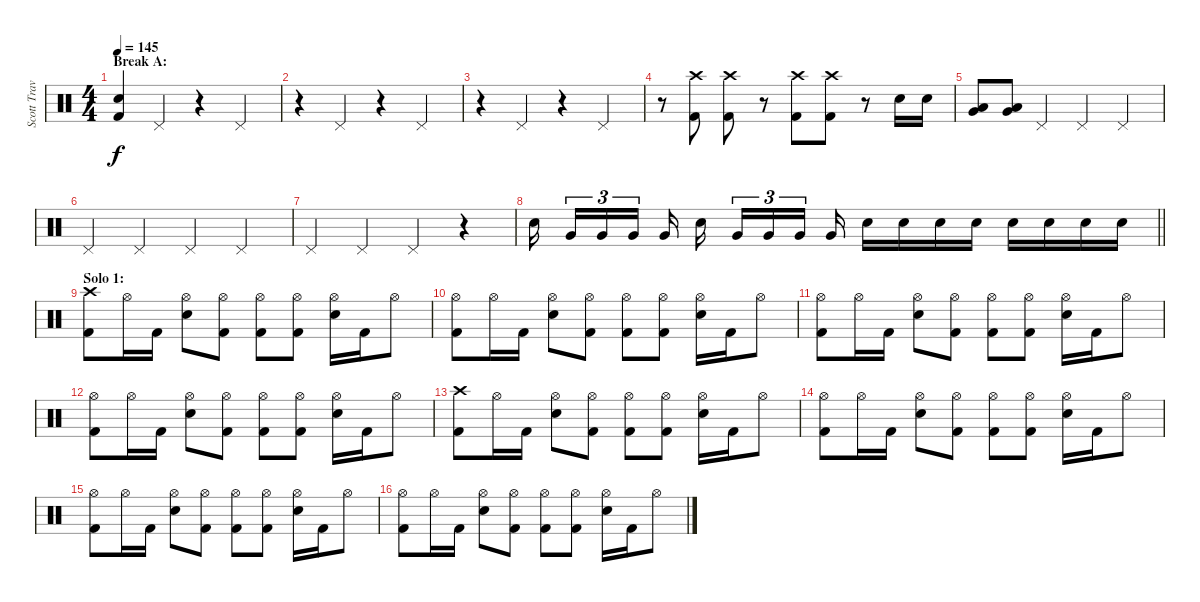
\track ("Scott Travis" "Scott Trav") {instrument percussion}
\staff {score}
\articulation defaults
\ts (4 4)
\section ("" "Break A:")
\tempo 145
\clef neutral
\ks c
("Snare (hit) 2" "Kick (hit) 2").4{dy f} "Pedal Hi-Hat (hit)".4 r.4 "Pedal Hi-Hat (hit)".4 |
r.4 "Pedal Hi-Hat (hit)".4 r.4 "Pedal Hi-Hat (hit)".4 |
r.4 "Pedal Hi-Hat (hit)".4 r.4 "Pedal Hi-Hat (hit)".4 |
r.8 ("Crash high (hit)" "Kick (hit) 2").8 ("Crash high (hit)" "Kick (hit) 2").8 r.8 ("Crash high (hit)" "Kick (hit) 2").8 ("Crash high (hit)" "Kick (hit) 2").8 r.8 "Snare (hit) 2".16 "Snare (hit) 2".16 |
("Low Tom (hit)" "Very Low Tom (hit)").8 ("Low Tom (hit)" "Very Low Tom (hit)").8 "Pedal Hi-Hat (hit)".4 "Pedal Hi-Hat (hit)".4 "Pedal Hi-Hat (hit)".4 |
"Pedal Hi-Hat (hit)".4 "Pedal Hi-Hat (hit)".4 "Pedal Hi-Hat (hit)".4 "Pedal Hi-Hat (hit)".4 |
"Pedal Hi-Hat (hit)".4 "Pedal Hi-Hat (hit)".4 "Pedal Hi-Hat (hit)".4 r.4 |
\barLineRight lightlight "Snare (hit) 2".16{beam splitsecondary} "Very Low Tom (hit)".16{tu (3 2)} "Very Low Tom (hit)".16{tu (3 2)} "Very Low Tom (hit)".16{tu (3 2) beam splitsecondary} "Very Low Tom (hit)".16 "Snare (hit) 2".16{beam splitsecondary} "Very Low Tom (hit)".16{tu (3 2)} "Very Low Tom (hit)".16{tu (3 2)} "Very Low Tom (hit)".16{tu (3 2) beam splitsecondary} "Very Low Tom (hit)".16 "Snare (hit) 2".16 "Snare (hit) 2".16 "Snare (hit) 2".16 "Snare (hit) 2".16 "Snare (hit) 2".16 "Snare (hit) 2".16 "Snare (hit) 2".16 "Snare (hit) 2".16
|
\section ("" "Solo 1:")
("Crash high (hit)" "Kick (hit) 2").8 "Hi-Hat (open)".16 "Kick (hit) 2".16 ("Hi-Hat (open)" "Snare (hit) 2").8 ("Hi-Hat (open)" "Kick (hit) 2").8 ("Hi-Hat (open)" "Kick (hit) 2").8 ("Hi-Hat (open)" "Kick (hit) 2").8 ("Hi-Hat (open)" "Snare (hit) 2").16 "Kick (hit) 2".16 "Hi-Hat (open)".8 |
("Hi-Hat (open)" "Kick (hit) 2").8 "Hi-Hat (open)".16 "Kick (hit) 2".16 ("Hi-Hat (open)" "Snare (hit) 2").8 ("Hi-Hat (open)" "Kick (hit) 2").8 ("Hi-Hat (open)" "Kick (hit) 2").8 ("Hi-Hat (open)" "Kick (hit) 2").8 ("Hi-Hat (open)" "Snare (hit) 2").16 "Kick (hit) 2".16 "Hi-Hat (open)".8 |
("Hi-Hat (open)" "Kick (hit) 2").8 "Hi-Hat (open)".16 "Kick (hit) 2".16 ("Hi-Hat (open)" "Snare (hit) 2").8 ("Hi-Hat (open)" "Kick (hit) 2").8 ("Hi-Hat (open)" "Kick (hit) 2").8 ("Hi-Hat (open)" "Kick (hit) 2").8 ("Hi-Hat (open)" "Snare (hit) 2").16 "Kick (hit) 2".16 "Hi-Hat (open)".8 |
("Hi-Hat (open)" "Kick (hit) 2").8 "Hi-Hat (open)".16 "Kick (hit) 2".16 ("Hi-Hat (open)" "Snare (hit) 2").8 ("Hi-Hat (open)" "Kick (hit) 2").8 ("Hi-Hat (open)" "Kick (hit) 2").8 ("Hi-Hat (open)" "Kick (hit) 2").8 ("Hi-Hat (open)" "Snare (hit) 2").16 "Kick (hit) 2".16 "Hi-Hat (open)".8 |
("Crash high (hit)" "Kick (hit) 2").8 "Hi-Hat (open)".16 "Kick (hit) 2".16 ("Hi-Hat (open)" "Snare (hit) 2").8 ("Hi-Hat (open)" "Kick (hit) 2").8 ("Hi-Hat (open)" "Kick (hit) 2").8 ("Hi-Hat (open)" "Kick (hit) 2").8 ("Hi-Hat (open)" "Snare (hit) 2").16 "Kick (hit) 2".16 "Hi-Hat (open)".8 |
("Hi-Hat (open)" "Kick (hit) 2").8 "Hi-Hat (open)".16 "Kick (hit) 2".16 ("Hi-Hat (open)" "Snare (hit) 2").8 ("Hi-Hat (open)" "Kick (hit) 2").8 ("Hi-Hat (open)" "Kick (hit) 2").8 ("Hi-Hat (open)" "Kick (hit) 2").8 ("Hi-Hat (open)" "Snare (hit) 2").16 "Kick (hit) 2".16 "Hi-Hat (open)".8 |
("Hi-Hat (open)" "Kick (hit) 2").8 "Hi-Hat (open)".16 "Kick (hit) 2".16 ("Hi-Hat (open)" "Snare (hit) 2").8 ("Hi-Hat (open)" "Kick (hit) 2").8 ("Hi-Hat (open)" "Kick (hit) 2").8 ("Hi-Hat (open)" "Kick (hit) 2").8 ("Hi-Hat (open)" "Snare (hit) 2").16 "Kick (hit) 2".16 "Hi-Hat (open)".8 |
("Hi-Hat (open)" "Kick (hit) 2").8 "Hi-Hat (open)".16 "Kick (hit) 2".16 ("Hi-Hat (open)" "Snare (hit) 2").8 ("Hi-Hat (open)" "Kick (hit) 2").8 ("Hi-Hat (open)" "Kick (hit) 2").8 ("Hi-Hat (open)" "Kick (hit) 2").8 ("Hi-Hat (open)" "Snare (hit) 2").16 "Kick (hit) 2".16 "Hi-Hat (open)".8
